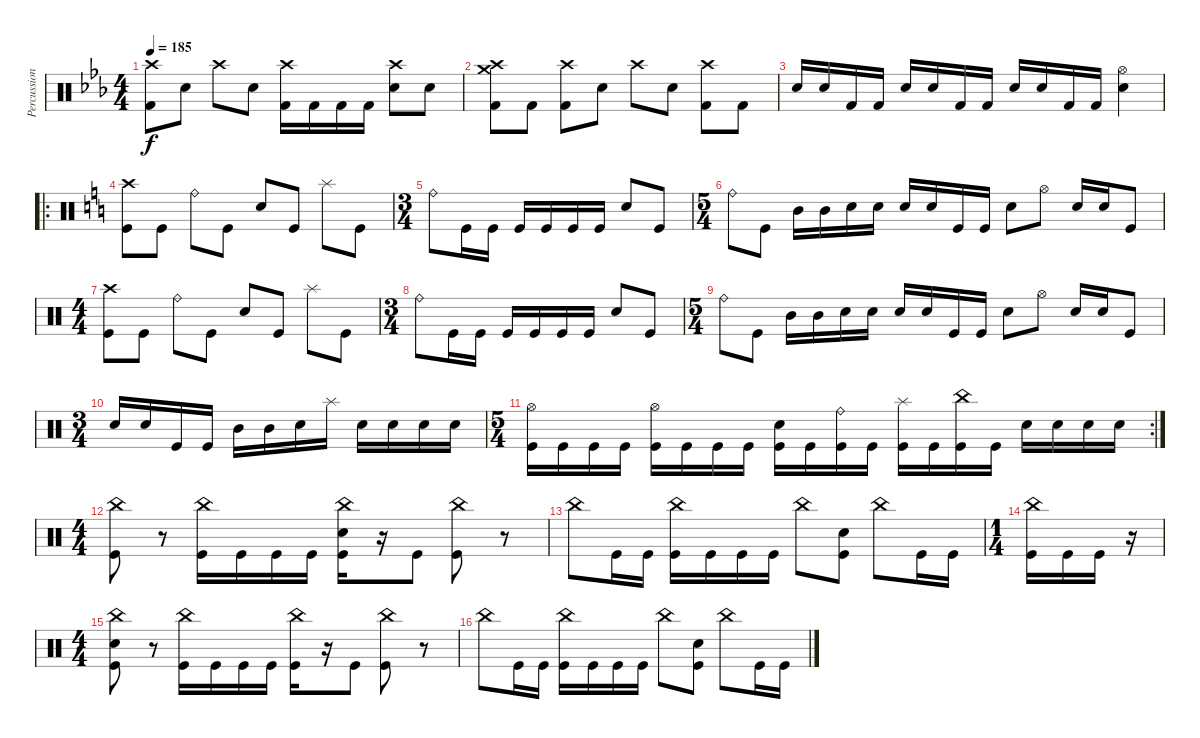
\track ("Percussion" "Percussion") {instrument percussion}
\staff {score}
\articulation defaults
\ts (4 4)
\tempo 185
\clef neutral
\ks cminor
("Crash high (hit)" "Kick (hit) 2").8{dy f} "Electric Snare (hit)".8 "Crash high (hit)".8 "Electric Snare (hit)".8 ("Crash high (hit)" "Kick (hit) 2").16 "Kick (hit) 2".16 "Kick (hit) 2".16 "Kick (hit) 2".16 ("Crash high (hit)" "Electric Snare (hit)").8 "Electric Snare (hit)".8 |
("Crash high (hit)" "Crash medium (hit)" "Kick (hit) 2").8 "Kick (hit) 2".8 ("Crash high (hit)" "Kick (hit) 2").8 "Electric Snare (hit)".8 "Crash high (hit)".8 "Electric Snare (hit)".8 ("Crash high (hit)" "Kick (hit) 2").8 "Kick (hit) 2".8 |
"Electric Snare (hit)".16 "Electric Snare (hit)".16 "Kick (hit) 2".16 "Kick (hit) 2".16 "Electric Snare (hit)".16 "Electric Snare (hit)".16 "Kick (hit) 2".16 "Kick (hit) 2".16 "Electric Snare (hit)".16 "Electric Snare (hit)".16 "Kick (hit) 2".16 "Kick (hit) 2".16 ("Hi-Hat (open)" "Electric Snare (hit)").4 |
\ro
\ks c
("Crash high (hit)" "Kick (hit)").8 "Kick (hit)".8 "Ride (bell)".8 "Kick (hit)".8 "Snare (hit) 2".8 "Kick (hit)".8 "Splash (hit)".8 "Kick (hit)".8 |
\ts (3 4)
"Ride (bell)".8 "Kick (hit)".16 "Kick (hit)".16 "Kick (hit)".16 "Kick (hit)".16 "Kick (hit)".16 "Kick (hit)".16 "Snare (hit) 2".8 "Kick (hit)".8 |
\ts (5 4)
"Ride (bell)".8 "Kick (hit)".8 "Mid Tom (hit)".16 "Mid Tom (hit)".16 "Snare (hit) 2".16 "Snare (hit) 2".16 "Snare (hit) 2".16 "Snare (hit) 2".16 "Kick (hit)".16 "Kick (hit)".16 "Snare (hit) 2".8 "Hi-Hat (open)".8 "Snare (hit) 2".16 "Snare (hit) 2".16 "Kick (hit)".8 |
\ts (4 4)
("Crash high (hit)" "Kick (hit)").8 "Kick (hit)".8 "Ride (bell)".8 "Kick (hit)".8 "Snare (hit) 2".8 "Kick (hit)".8 "Splash (hit)".8 "Kick (hit)".8 |
\ts (3 4)
"Ride (bell)".8 "Kick (hit)".16 "Kick (hit)".16 "Kick (hit)".16 "Kick (hit)".16 "Kick (hit)".16 "Kick (hit)".16 "Snare (hit) 2".8 "Kick (hit)".8 |
\ts (5 4)
"Ride (bell)".8 "Kick (hit)".8 "Mid Tom (hit)".16 "Mid Tom (hit)".16 "Snare (hit) 2".16 "Snare (hit) 2".16 "Snare (hit) 2".16 "Snare (hit) 2".16 "Kick (hit)".16 "Kick (hit)".16 "Snare (hit) 2".8 "Hi-Hat (open)".8 "Snare (hit) 2".16 "Snare (hit) 2".16 "Kick (hit)".8 |
\ts (3 4)
"Snare (hit) 2".16 "Snare (hit) 2".16 "Kick (hit)".16 "Kick (hit)".16 "Mid Tom (hit)".16 "Mid Tom (hit)".16 "Snare (hit) 2".16 "Splash (hit)".16 "Snare (hit) 2".16 "Snare (hit) 2".16 "Snare (hit) 2".16 "Snare (hit) 2".16 |
\rc 2
\ts (5 4)
("Hi-Hat (open)" "Kick (hit)").16 "Kick (hit)".16 "Kick (hit)".16 "Kick (hit)".16 ("Hi-Hat (open)" "Kick (hit)").16 "Kick (hit)".16 "Kick (hit)".16 "Kick (hit)".16 ("Snare (hit) 2" "Kick (hit)").16 "Kick (hit)".16 ("Ride (bell)" "Kick (hit)").16 "Kick (hit)".16 ("Splash (hit)" "Kick (hit)").16 "Kick (hit)".16 ("China (hit)" "Kick (hit)").16 "Kick (hit)".16 "Snare (hit) 2".16 "Snare (hit) 2".16 "Snare (hit) 2".16 "Snare (hit) 2".16 |
\ts (4 4)
("China (hit)" "Kick (hit)").8 r.8 ("China (hit)" "Kick (hit)").16 "Kick (hit)".16 "Kick (hit)".16 "Kick (hit)".16 ("Electric Snare (hit)" "China (hit)" "Kick (hit)").16 r.16 "Kick (hit)".8 ("China (hit)" "Kick (hit)").8 r.8 |
"China (hit)".8 "Kick (hit)".16 "Kick (hit)".16 ("China (hit)" "Kick (hit)").16 "Kick (hit)".16 "Kick (hit)".16 "Kick (hit)".16 "China (hit)".8 ("Electric Snare (hit)" "Kick (hit)").8 "China (hit)".8 "Kick (hit)".16 "Kick (hit)".16 |
\ts (1 4)
("China (hit)" "Kick (hit)").16 "Kick (hit)".16 "Kick (hit)".16 r.16 |
\ts (4 4)
("Electric Snare (hit)" "China (hit)" "Kick (hit)").8 r.8 ("China (hit)" "Kick (hit)").16 "Kick (hit)".16 "Kick (hit)".16 "Kick (hit)".16 ("China (hit)" "Kick (hit)").16 r.16 "Kick (hit)".8 ("China (hit)" "Kick (hit)").8 r.8 |
"China (hit)".8 "Kick (hit)".16 "Kick (hit)".16 ("China (hit)" "Kick (hit)").16 "Kick (hit)".16 "Kick (hit)".16 "Kick (hit)".16 "China (hit)".8 ("Electric Snare (hit)" "Kick (hit)").8 "China (hit)".8 "Kick (hit)".16 "Kick (hit)".16
